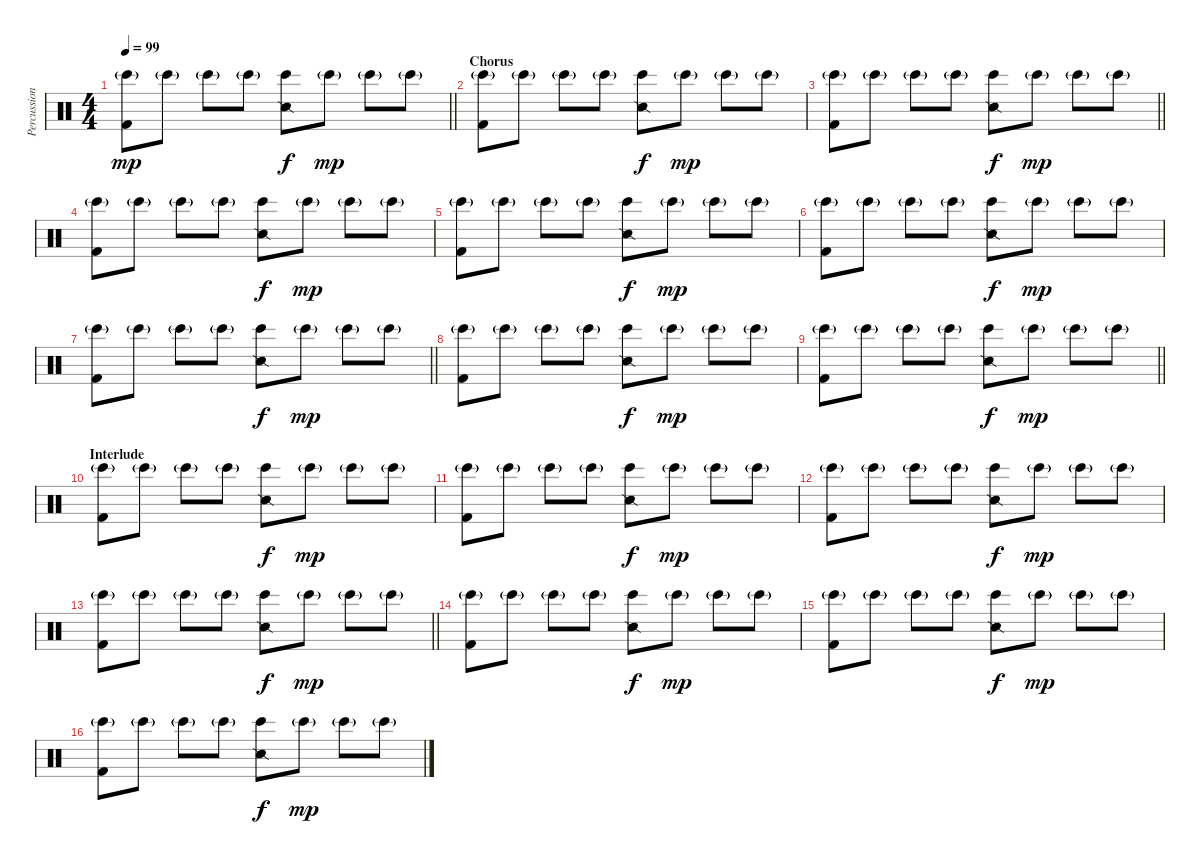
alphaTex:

\track ("Percussion" "Percussion") {instrument percussion}
\staff {score}
\articulation defaults
\ts (4 4)
\tempo 99
\clef neutral
\barLineRight lightlight
\ks c
("Bongo High (hit)"{g} "Kick (hit) 2").8{dy mp} "Bongo High (hit)"{g}.8 "Bongo High (hit)"{g}.8 "Bongo High (hit)"{g}.8 ("Bongo High (hit)" "Snare (side stick) 2").8{dy f} "Bongo High (hit)"{g}.8{dy mp} "Bongo High (hit)"{g}.8 "Bongo High (hit)"{g}.8 |
\section ("" "Chorus")
("Bongo High (hit)"{g} "Kick (hit) 2").8 "Bongo High (hit)"{g}.8 "Bongo High (hit)"{g}.8 "Bongo High (hit)"{g}.8 ("Bongo High (hit)" "Snare (side stick) 2").8{dy f} "Bongo High (hit)"{g}.8{dy mp} "Bongo High (hit)"{g}.8 "Bongo High (hit)"{g}.8 |
\barLineRight lightlight
("Bongo High (hit)"{g} "Kick (hit) 2").8 "Bongo High (hit)"{g}.8 "Bongo High (hit)"{g}.8 "Bongo High (hit)"{g}.8 ("Bongo High (hit)" "Snare (side stick) 2").8{dy f} "Bongo High (hit)"{g}.8{dy mp} "Bongo High (hit)"{g}.8 "Bongo High (hit)"{g}.8 |
("Bongo High (hit)"{g} "Kick (hit) 2").8 "Bongo High (hit)"{g}.8 "Bongo High (hit)"{g}.8 "Bongo High (hit)"{g}.8 ("Bongo High (hit)" "Snare (side stick) 2").8{dy f} "Bongo High (hit)"{g}.8{dy mp} "Bongo High (hit)"{g}.8 "Bongo High (hit)"{g}.8 |
("Bongo High (hit)"{g} "Kick (hit) 2").8 "Bongo High (hit)"{g}.8 "Bongo High (hit)"{g}.8 "Bongo High (hit)"{g}.8 ("Bongo High (hit)" "Snare (side stick) 2").8{dy f} "Bongo High (hit)"{g}.8{dy mp} "Bongo High (hit)"{g}.8 "Bongo High (hit)"{g}.8 |
("Bongo High (hit)"{g} "Kick (hit) 2").8 "Bongo High (hit)"{g}.8 "Bongo High (hit)"{g}.8 "Bongo High (hit)"{g}.8 ("Bongo High (hit)" "Snare (side stick) 2").8{dy f} "Bongo High (hit)"{g}.8{dy mp} "Bongo High (hit)"{g}.8 "Bongo High (hit)"{g}.8 |
\barLineRight lightlight
("Bongo High (hit)"{g} "Kick (hit) 2").8 "Bongo High (hit)"{g}.8 "Bongo High (hit)"{g}.8 "Bongo High (hit)"{g}.8 ("Bongo High (hit)" "Snare (side stick) 2").8{dy f} "Bongo High (hit)"{g}.8{dy mp} "Bongo High (hit)"{g}.8 "Bongo High (hit)"{g}.8 |
("Bongo High (hit)"{g} "Kick (hit) 2").8 "Bongo High (hit)"{g}.8 "Bongo High (hit)"{g}.8 "Bongo High (hit)"{g}.8 ("Bongo High (hit)" "Snare (side stick) 2").8{dy f} "Bongo High (hit)"{g}.8{dy mp} "Bongo High (hit)"{g}.8 "Bongo High (hit)"{g}.8 |
\barLineRight lightlight
("Bongo High (hit)"{g} "Kick (hit) 2").8 "Bongo High (hit)"{g}.8 "Bongo High (hit)"{g}.8 "Bongo High (hit)"{g}.8 ("Bongo High (hit)" "Snare (side stick) 2").8{dy f} "Bongo High (hit)"{g}.8{dy mp} "Bongo High (hit)"{g}.8 "Bongo High (hit)"{g}.8 |
\section ("" "Interlude")
("Bongo High (hit)"{g} "Kick (hit) 2").8 "Bongo High (hit)"{g}.8 "Bongo High (hit)"{g}.8 "Bongo High (hit)"{g}.8 ("Bongo High (hit)" "Snare (side stick) 2").8{dy f} "Bongo High (hit)"{g}.8{dy mp} "Bongo High (hit)"{g}.8 "Bongo High (hit)"{g}.8 |
("Bongo High (hit)"{g} "Kick (hit) 2").8 "Bongo High (hit)"{g}.8 "Bongo High (hit)"{g}.8 "Bongo High (hit)"{g}.8 ("Bongo High (hit)" "Snare (side stick) 2").8{dy f} "Bongo High (hit)"{g}.8{dy mp} "Bongo High (hit)"{g}.8 "Bongo High (hit)"{g}.8 |
("Bongo High (hit)"{g} "Kick (hit) 2").8 "Bongo High (hit)"{g}.8 "Bongo High (hit)"{g}.8 "Bongo High (hit)"{g}.8 ("Bongo High (hit)" "Snare (side stick) 2").8{dy f} "Bongo High (hit)"{g}.8{dy mp} "Bongo High (hit)"{g}.8 "Bongo High (hit)"{g}.8 |
\barLineRight lightlight
("Bongo High (hit)"{g} "Kick (hit) 2").8 "Bongo High (hit)"{g}.8 "Bongo High (hit)"{g}.8 "Bongo High (hit)"{g}.8 ("Bongo High (hit)" "Snare (side stick) 2").8{dy f} "Bongo High (hit)"{g}.8{dy mp} "Bongo High (hit)"{g}.8 "Bongo High (hit)"{g}.8 |
("Bongo High (hit)"{g} "Kick (hit) 2").8 "Bongo High (hit)"{g}.8 "Bongo High (hit)"{g}.8 "Bongo High (hit)"{g}.8 ("Bongo High (hit)" "Snare (side stick) 2").8{dy f} "Bongo High (hit)"{g}.8{dy mp} "Bongo High (hit)"{g}.8 "Bongo High (hit)"{g}.8 |
("Bongo High (hit)"{g} "Kick (hit) 2").8 "Bongo High (hit)"{g}.8 "Bongo High (hit)"{g}.8 "Bongo High (hit)"{g}.8 ("Bongo High (hit)" "Snare (side stick) 2").8{dy f} "Bongo High (hit)"{g}.8{dy mp} "Bongo High (hit)"{g}.8 "Bongo High (hit)"{g}.8 |
("Bongo High (hit)"{g} "Kick (hit) 2").8 "Bongo High (hit)"{g}.8 "Bongo High (hit)"{g}.8 "Bongo High (hit)"{g}.8 ("Bongo High (hit)" "Snare (side stick) 2").8{dy f} "Bongo High (hit)"{g}.8{dy mp} "Bongo High (hit)"{g}.8 "Bongo High (hit)"{g}.8
